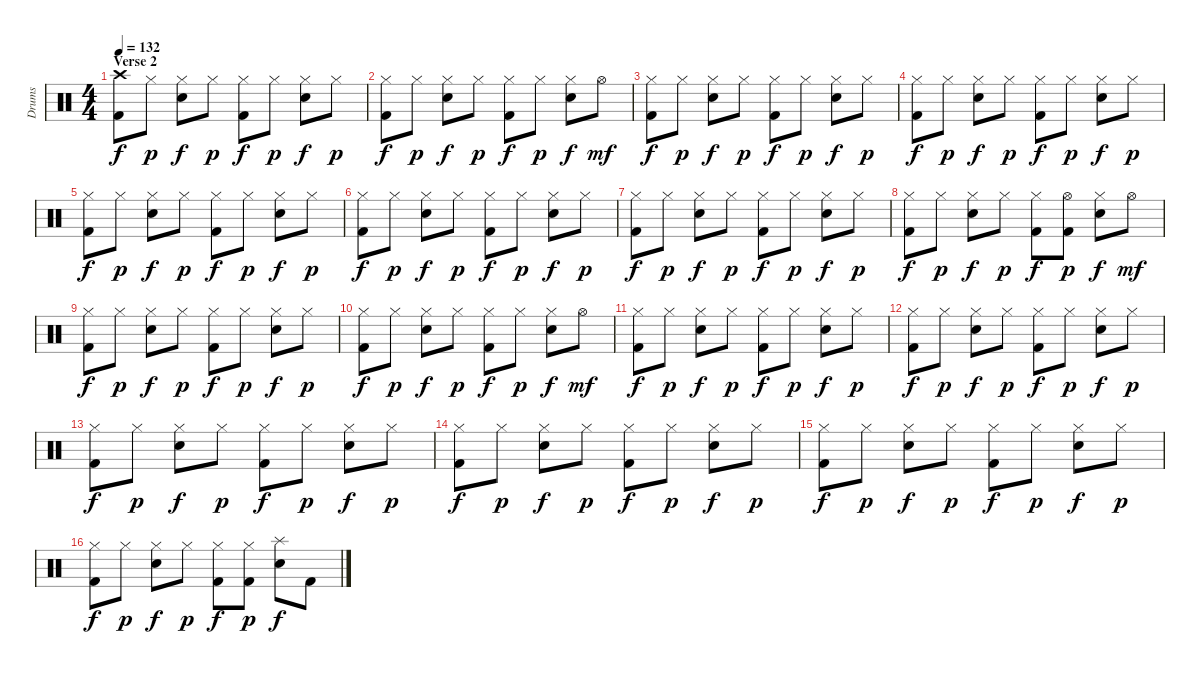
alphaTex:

\track ("Drums" "Drums") {instrument percussion}
\staff {score}
\articulation defaults
\ts (4 4)
\section ("" "Verse 2")
\tempo 132
\clef neutral
\ks c
("Crash high (hit)" "Kick (hit) 2").8{dy f} "Hi-Hat (closed)".8{dy p} ("Hi-Hat (closed)" "Electric Snare (hit)").8{dy f} "Hi-Hat (closed)".8{dy p} ("Hi-Hat (closed)" "Kick (hit) 2").8{dy f} "Hi-Hat (closed)".8{dy p} ("Hi-Hat (closed)" "Electric Snare (hit)").8{dy f} "Hi-Hat (closed)".8{dy p} |
("Hi-Hat (closed)" "Kick (hit) 2").8{dy f} "Hi-Hat (closed)".8{dy p} ("Hi-Hat (closed)" "Electric Snare (hit)").8{dy f} "Hi-Hat (closed)".8{dy p} ("Hi-Hat (closed)" "Kick (hit) 2").8{dy f} "Hi-Hat (closed)".8{dy p} ("Hi-Hat (closed)" "Electric Snare (hit)").8{dy f} "Hi-Hat (open)".8{dy mf} |
("Hi-Hat (closed)" "Kick (hit) 2").8{dy f} "Hi-Hat (closed)".8{dy p} ("Hi-Hat (closed)" "Electric Snare (hit)").8{dy f} "Hi-Hat (closed)".8{dy p} ("Hi-Hat (closed)" "Kick (hit) 2").8{dy f} "Hi-Hat (closed)".8{dy p} ("Hi-Hat (closed)" "Electric Snare (hit)").8{dy f} "Hi-Hat (closed)".8{dy p} |
("Hi-Hat (closed)" "Kick (hit) 2").8{dy f} "Hi-Hat (closed)".8{dy p} ("Hi-Hat (closed)" "Electric Snare (hit)").8{dy f} "Hi-Hat (closed)".8{dy p} ("Hi-Hat (closed)" "Kick (hit) 2").8{dy f} "Hi-Hat (closed)".8{dy p} ("Hi-Hat (closed)" "Electric Snare (hit)").8{dy f} "Hi-Hat (closed)".8{dy p} |
("Hi-Hat (closed)" "Kick (hit) 2").8{dy f} "Hi-Hat (closed)".8{dy p} ("Hi-Hat (closed)" "Electric Snare (hit)").8{dy f} "Hi-Hat (closed)".8{dy p} ("Hi-Hat (closed)" "Kick (hit) 2").8{dy f} "Hi-Hat (closed)".8{dy p} ("Hi-Hat (closed)" "Electric Snare (hit)").8{dy f} "Hi-Hat (closed)".8{dy p} |
("Hi-Hat (closed)" "Kick (hit) 2").8{dy f} "Hi-Hat (closed)".8{dy p} ("Hi-Hat (closed)" "Electric Snare (hit)").8{dy f} "Hi-Hat (closed)".8{dy p} ("Hi-Hat (closed)" "Kick (hit) 2").8{dy f} "Hi-Hat (closed)".8{dy p} ("Hi-Hat (closed)" "Electric Snare (hit)").8{dy f} "Hi-Hat (closed)".8{dy p} |
("Hi-Hat (closed)" "Kick (hit) 2").8{dy f} "Hi-Hat (closed)".8{dy p} ("Hi-Hat (closed)" "Electric Snare (hit)").8{dy f} "Hi-Hat (closed)".8{dy p} ("Hi-Hat (closed)" "Kick (hit) 2").8{dy f} "Hi-Hat (closed)".8{dy p} ("Hi-Hat (closed)" "Electric Snare (hit)").8{dy f} "Hi-Hat (closed)".8{dy p} |
("Hi-Hat (closed)" "Kick (hit) 2").8{dy f} "Hi-Hat (closed)".8{dy p} ("Hi-Hat (closed)" "Electric Snare (hit)").8{dy f} "Hi-Hat (closed)".8{dy p} ("Hi-Hat (closed)" "Kick (hit) 2").8{dy f} ("Hi-Hat (open)" "Kick (hit) 2").8{dy p} ("Hi-Hat (closed)" "Electric Snare (hit)").8{dy f} "Hi-Hat (open)".8{dy mf} |
("Hi-Hat (closed)" "Kick (hit) 2").8{dy f} "Hi-Hat (closed)".8{dy p} ("Hi-Hat (closed)" "Electric Snare (hit)").8{dy f} "Hi-Hat (closed)".8{dy p} ("Hi-Hat (closed)" "Kick (hit) 2").8{dy f} "Hi-Hat (closed)".8{dy p} ("Hi-Hat (closed)" "Electric Snare (hit)").8{dy f} "Hi-Hat (closed)".8{dy p} |
("Hi-Hat (closed)" "Kick (hit) 2").8{dy f} "Hi-Hat (closed)".8{dy p} ("Hi-Hat (closed)" "Electric Snare (hit)").8{dy f} "Hi-Hat (closed)".8{dy p} ("Hi-Hat (closed)" "Kick (hit) 2").8{dy f} "Hi-Hat (closed)".8{dy p} ("Hi-Hat (closed)" "Electric Snare (hit)").8{dy f} "Hi-Hat (open)".8{dy mf} |
("Hi-Hat (closed)" "Kick (hit) 2").8{dy f} "Hi-Hat (closed)".8{dy p} ("Hi-Hat (closed)" "Electric Snare (hit)").8{dy f} "Hi-Hat (closed)".8{dy p} ("Hi-Hat (closed)" "Kick (hit) 2").8{dy f} "Hi-Hat (closed)".8{dy p} ("Hi-Hat (closed)" "Electric Snare (hit)").8{dy f} "Hi-Hat (closed)".8{dy p} |
("Hi-Hat (closed)" "Kick (hit) 2").8{dy f} "Hi-Hat (closed)".8{dy p} ("Hi-Hat (closed)" "Electric Snare (hit)").8{dy f} "Hi-Hat (closed)".8{dy p} ("Hi-Hat (closed)" "Kick (hit) 2").8{dy f} "Hi-Hat (closed)".8{dy p} ("Hi-Hat (closed)" "Electric Snare (hit)").8{dy f} "Hi-Hat (closed)".8{dy p} |
("Hi-Hat (closed)" "Kick (hit) 2").8{dy f} "Hi-Hat (closed)".8{dy p} ("Hi-Hat (closed)" "Electric Snare (hit)").8{dy f} "Hi-Hat (closed)".8{dy p} ("Hi-Hat (closed)" "Kick (hit) 2").8{dy f} "Hi-Hat (closed)".8{dy p} ("Hi-Hat (closed)" "Electric Snare (hit)").8{dy f} "Hi-Hat (closed)".8{dy p} |
("Hi-Hat (closed)" "Kick (hit) 2").8{dy f} "Hi-Hat (closed)".8{dy p} ("Hi-Hat (closed)" "Electric Snare (hit)").8{dy f} "Hi-Hat (closed)".8{dy p} ("Hi-Hat (closed)" "Kick (hit) 2").8{dy f} "Hi-Hat (closed)".8{dy p} ("Hi-Hat (closed)" "Electric Snare (hit)").8{dy f} "Hi-Hat (closed)".8{dy p} |
("Hi-Hat (closed)" "Kick (hit) 2").8{dy f} "Hi-Hat (closed)".8{dy p} ("Hi-Hat (closed)" "Electric Snare (hit)").8{dy f} "Hi-Hat (closed)".8{dy p} ("Hi-Hat (closed)" "Kick (hit) 2").8{dy f} "Hi-Hat (closed)".8{dy p} ("Hi-Hat (closed)" "Electric Snare (hit)").8{dy f} "Hi-Hat (closed)".8{dy p} |
("Hi-Hat (closed)" "Kick (hit) 2").8{dy f} "Hi-Hat (closed)".8{dy p} ("Hi-Hat (closed)" "Electric Snare (hit)").8{dy f} "Hi-Hat (closed)".8{dy p} ("Hi-Hat (closed)" "Kick (hit) 2").8{dy f} ("Hi-Hat (closed)" "Kick (hit) 2").8{dy p} ("Splash (hit)" "Electric Snare (hit)").8{dy f} "Kick (hit) 2".8
